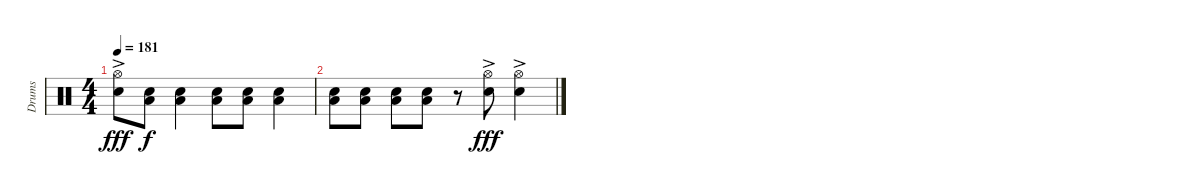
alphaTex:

\track ("Drums" "Drums") {instrument percussion}
\staff {score}
\articulation defaults
\ts (4 4)
\tempo 181
\clef neutral
\ks c
("Hi-Hat (open)"{ac} "Snare (hit) 2").8{dy fff} ("Snare (hit) 2" "Low Tom (hit)").8{dy f} ("Snare (hit) 2" "Low Tom (hit)").4 ("Snare (hit) 2" "Low Tom (hit)").8 ("Snare (hit) 2" "Low Tom (hit)").8 ("Snare (hit) 2" "Low Tom (hit)").4 |
("Snare (hit) 2" "Low Tom (hit)").8 ("Snare (hit) 2" "Low Tom (hit)").8 ("Snare (hit) 2" "Low Tom (hit)").8 ("Snare (hit) 2" "Low Tom (hit)").8 r.8 ("Hi-Hat (open)"{ac} "Snare (hit) 2").8{dy fff} ("Hi-Hat (open)"{ac} "Snare (hit) 2").4
